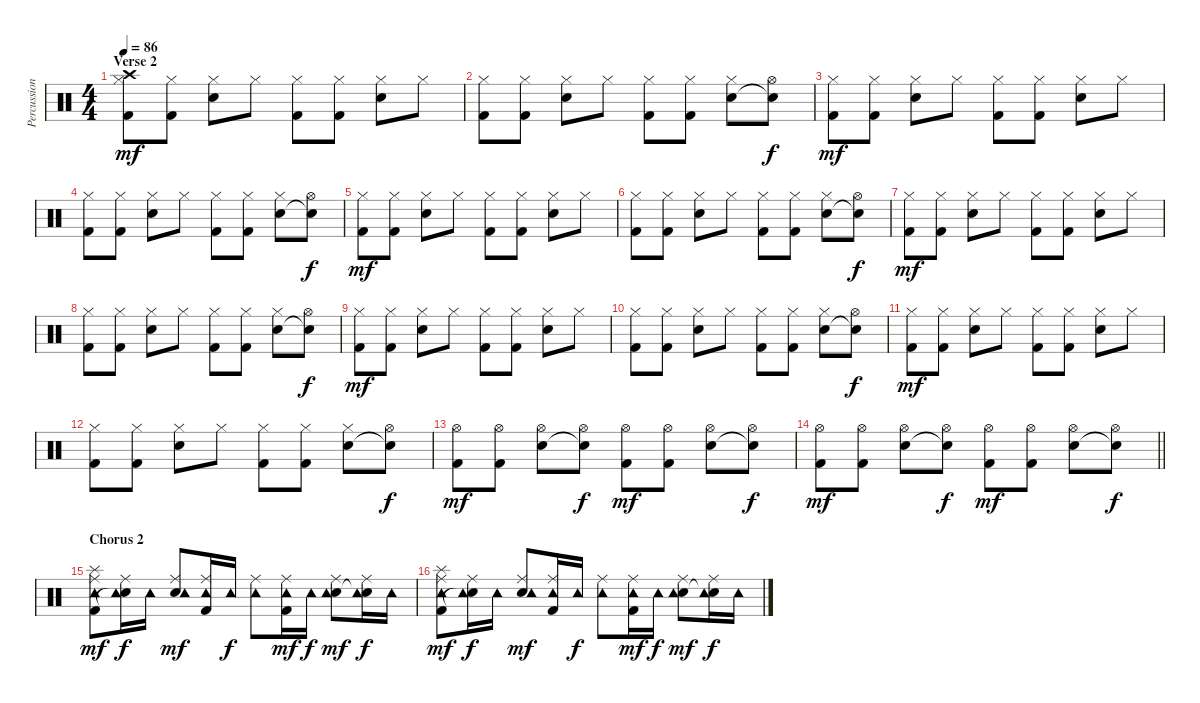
\track ("Percussion" "Percussion") {instrument percussion}
\staff {score}
\articulation defaults
\ts (4 4)
\section ("" "Verse 2")
\tempo 86
\clef neutral
\ks c
("Kick (hit) 2" "Hi-Hat (closed)" "Crash high (hit)").8{dy mf} ("Kick (hit) 2" "Hi-Hat (closed)").8 ("Snare (hit) 2" "Hi-Hat (closed)").8 "Hi-Hat (closed)".8 ("Kick (hit) 2" "Hi-Hat (closed)").8 ("Kick (hit) 2" "Hi-Hat (closed)").8 ("Snare (hit) 2" "Hi-Hat (closed)").8 "Hi-Hat (closed)".8 |
("Kick (hit) 2" "Hi-Hat (closed)").8 ("Kick (hit) 2" "Hi-Hat (closed)").8 ("Snare (hit) 2" "Hi-Hat (closed)").8 "Hi-Hat (closed)".8 ("Kick (hit) 2" "Hi-Hat (closed)").8 ("Kick (hit) 2" "Hi-Hat (closed)").8 ("Snare (hit) 2" "Hi-Hat (closed)").8 ("Snare (hit)"{t} "Hi-Hat (open)").8{dy f} |
("Kick (hit) 2" "Hi-Hat (closed)").8{dy mf} ("Kick (hit) 2" "Hi-Hat (closed)").8 ("Snare (hit) 2" "Hi-Hat (closed)").8 "Hi-Hat (closed)".8 ("Kick (hit) 2" "Hi-Hat (closed)").8 ("Kick (hit) 2" "Hi-Hat (closed)").8 ("Snare (hit) 2" "Hi-Hat (closed)").8 "Hi-Hat (closed)".8 |
("Kick (hit) 2" "Hi-Hat (closed)").8 ("Kick (hit) 2" "Hi-Hat (closed)").8 ("Snare (hit) 2" "Hi-Hat (closed)").8 "Hi-Hat (closed)".8 ("Kick (hit) 2" "Hi-Hat (closed)").8 ("Kick (hit) 2" "Hi-Hat (closed)").8 ("Snare (hit) 2" "Hi-Hat (closed)").8 ("Snare (hit)"{t} "Hi-Hat (open)").8{dy f} |
("Kick (hit) 2" "Hi-Hat (closed)").8{dy mf} ("Kick (hit) 2" "Hi-Hat (closed)").8 ("Snare (hit) 2" "Hi-Hat (closed)").8 "Hi-Hat (closed)".8 ("Kick (hit) 2" "Hi-Hat (closed)").8 ("Kick (hit) 2" "Hi-Hat (closed)").8 ("Snare (hit) 2" "Hi-Hat (closed)").8 "Hi-Hat (closed)".8 |
("Kick (hit) 2" "Hi-Hat (closed)").8 ("Kick (hit) 2" "Hi-Hat (closed)").8 ("Snare (hit) 2" "Hi-Hat (closed)").8 "Hi-Hat (closed)".8 ("Kick (hit) 2" "Hi-Hat (closed)").8 ("Kick (hit) 2" "Hi-Hat (closed)").8 ("Snare (hit) 2" "Hi-Hat (closed)").8 ("Snare (hit)"{t} "Hi-Hat (open)").8{dy f} |
("Kick (hit) 2" "Hi-Hat (closed)").8{dy mf} ("Kick (hit) 2" "Hi-Hat (closed)").8 ("Snare (hit) 2" "Hi-Hat (closed)").8 "Hi-Hat (closed)".8 ("Kick (hit) 2" "Hi-Hat (closed)").8 ("Kick (hit) 2" "Hi-Hat (closed)").8 ("Snare (hit) 2" "Hi-Hat (closed)").8 "Hi-Hat (closed)".8 |
("Kick (hit) 2" "Hi-Hat (closed)").8 ("Kick (hit) 2" "Hi-Hat (closed)").8 ("Snare (hit) 2" "Hi-Hat (closed)").8 "Hi-Hat (closed)".8 ("Kick (hit) 2" "Hi-Hat (closed)").8 ("Kick (hit) 2" "Hi-Hat (closed)").8 ("Snare (hit) 2" "Hi-Hat (closed)").8 ("Snare (hit)"{t} "Hi-Hat (open)").8{dy f} |
("Kick (hit) 2" "Hi-Hat (closed)").8{dy mf} ("Kick (hit) 2" "Hi-Hat (closed)").8 ("Snare (hit) 2" "Hi-Hat (closed)").8 "Hi-Hat (closed)".8 ("Kick (hit) 2" "Hi-Hat (closed)").8 ("Kick (hit) 2" "Hi-Hat (closed)").8 ("Snare (hit) 2" "Hi-Hat (closed)").8 "Hi-Hat (closed)".8 |
("Kick (hit) 2" "Hi-Hat (closed)").8 ("Kick (hit) 2" "Hi-Hat (closed)").8 ("Snare (hit) 2" "Hi-Hat (closed)").8 "Hi-Hat (closed)".8 ("Kick (hit) 2" "Hi-Hat (closed)").8 ("Kick (hit) 2" "Hi-Hat (closed)").8 ("Snare (hit) 2" "Hi-Hat (closed)").8 ("Snare (hit)"{t} "Hi-Hat (open)").8{dy f} |
("Kick (hit) 2" "Hi-Hat (closed)").8{dy mf} ("Kick (hit) 2" "Hi-Hat (closed)").8 ("Snare (hit) 2" "Hi-Hat (closed)").8 "Hi-Hat (closed)".8 ("Kick (hit) 2" "Hi-Hat (closed)").8 ("Kick (hit) 2" "Hi-Hat (closed)").8 ("Snare (hit) 2" "Hi-Hat (closed)").8 "Hi-Hat (closed)".8 |
("Kick (hit) 2" "Hi-Hat (closed)").8 ("Kick (hit) 2" "Hi-Hat (closed)").8 ("Snare (hit) 2" "Hi-Hat (closed)").8 "Hi-Hat (closed)".8 ("Kick (hit) 2" "Hi-Hat (closed)").8 ("Kick (hit) 2" "Hi-Hat (closed)").8 ("Snare (hit) 2" "Hi-Hat (closed)").8 ("Snare (hit)"{t} "Hi-Hat (open)").8{dy f} |
("Kick (hit) 2" "Hi-Hat (open)").8{dy mf} ("Kick (hit) 2" "Hi-Hat (open)").8 ("Snare (hit) 2" "Hi-Hat (open)").8 ("Snare (hit)"{t} "Hi-Hat (open)").8{dy f} ("Kick (hit) 2" "Hi-Hat (open)").8{dy mf} ("Kick (hit) 2" "Hi-Hat (open)").8 ("Snare (hit) 2" "Hi-Hat (open)").8 ("Snare (hit)"{t} "Hi-Hat (open)").8{dy f} |
\barLineRight lightlight
("Kick (hit) 2" "Hi-Hat (open)").8{dy mf} ("Kick (hit) 2" "Hi-Hat (open)").8 ("Snare (hit) 2" "Hi-Hat (open)").8 ("Snare (hit)"{t} "Hi-Hat (open)").8{dy f} ("Kick (hit) 2" "Hi-Hat (open)").8{dy mf} ("Kick (hit) 2" "Hi-Hat (open)").8 ("Snare (hit) 2" "Hi-Hat (open)").8 ("Snare (hit)"{t} "Hi-Hat (open)").8{dy f} |
\section ("" "Chorus 2")
("Kick (hit) 2" "Ride (middle)" "Tambourine (hit)" "Splash (hit)").8{dy mf} ("Snare (hit)"{t} "Ride (middle)" "Tambourine (hit)").16{dy f} "Tambourine (hit)".16 ("Snare (hit) 2" "Ride (middle)" "Tambourine (hit)").8{dy mf} ("Kick (hit) 2" "Ride (middle)" "Tambourine (hit)").16 "Tambourine (hit)".16{dy f} ("Ride (middle)" "Tambourine (hit)").8 ("Kick (hit) 2" "Ride (middle)" "Tambourine (hit)").16{dy mf} "Tambourine (hit)".16{dy f} ("Snare (hit) 2" "Ride (middle)" "Tambourine (hit)").8{dy mf} ("Snare (hit)"{t} "Ride (middle)" "Tambourine (hit)").16{dy f} "Tambourine (hit)".16 |
("Kick (hit) 2" "Ride (middle)" "Tambourine (hit)" "Splash (hit)").8{dy mf} ("Snare (hit)"{t} "Ride (middle)" "Tambourine (hit)").16{dy f} "Tambourine (hit)".16 ("Snare (hit) 2" "Ride (middle)" "Tambourine (hit)").8{dy mf} ("Kick (hit) 2" "Ride (middle)" "Tambourine (hit)").16 "Tambourine (hit)".16{dy f} ("Ride (middle)" "Tambourine (hit)").8 ("Kick (hit) 2" "Ride (middle)" "Tambourine (hit)").16{dy mf} "Tambourine (hit)".16{dy f} ("Snare (hit) 2" "Ride (middle)" "Tambourine (hit)").8{dy mf} ("Snare (hit)"{t} "Ride (middle)" "Tambourine (hit)").16{dy f} "Tambourine (hit)".16
